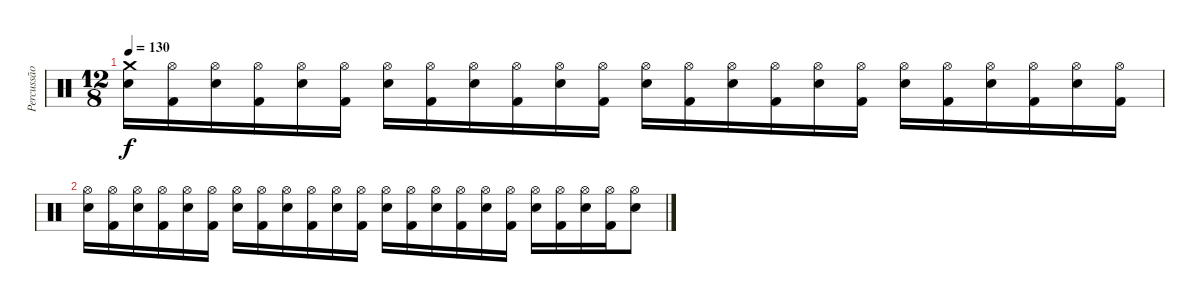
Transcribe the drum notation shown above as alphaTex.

\track ("Percussão" "Percussão") {instrument percussion}
\staff {score}
\articulation defaults
\ts (12 8)
\tempo 130
\clef neutral
\ks c
("Crash medium (hit)" "Electric Snare (hit)").16{dy f} ("Hi-Hat (open)" "Kick (hit) 2").16 ("Hi-Hat (open)" "Electric Snare (hit)").16 ("Hi-Hat (open)" "Kick (hit) 2").16 ("Hi-Hat (open)" "Electric Snare (hit)").16 ("Hi-Hat (open)" "Kick (hit) 2").16 ("Hi-Hat (open)" "Electric Snare (hit)").16 ("Hi-Hat (open)" "Kick (hit) 2").16 ("Hi-Hat (open)" "Electric Snare (hit)").16 ("Hi-Hat (open)" "Kick (hit) 2").16 ("Hi-Hat (open)" "Electric Snare (hit)").16 ("Hi-Hat (open)" "Kick (hit) 2").16 ("Hi-Hat (open)" "Electric Snare (hit)").16 ("Hi-Hat (open)" "Kick (hit) 2").16 ("Hi-Hat (open)" "Electric Snare (hit)").16 ("Hi-Hat (open)" "Kick (hit) 2").16 ("Hi-Hat (open)" "Electric Snare (hit)").16 ("Hi-Hat (open)" "Kick (hit) 2").16 ("Hi-Hat (open)" "Electric Snare (hit)").16 ("Hi-Hat (open)" "Kick (hit) 2").16 ("Hi-Hat (open)" "Electric Snare (hit)").16 ("Hi-Hat (open)" "Kick (hit) 2").16 ("Hi-Hat (open)" "Electric Snare (hit)").16 ("Hi-Hat (open)" "Kick (hit) 2").16 |
("Hi-Hat (open)" "Electric Snare (hit)").16 ("Hi-Hat (open)" "Kick (hit) 2").16 ("Hi-Hat (open)" "Electric Snare (hit)").16 ("Hi-Hat (open)" "Kick (hit) 2").16 ("Hi-Hat (open)" "Electric Snare (hit)").16 ("Hi-Hat (open)" "Kick (hit) 2").16 ("Hi-Hat (open)" "Electric Snare (hit)").16 ("Hi-Hat (open)" "Kick (hit) 2").16 ("Hi-Hat (open)" "Electric Snare (hit)").16 ("Hi-Hat (open)" "Kick (hit) 2").16 ("Hi-Hat (open)" "Electric Snare (hit)").16 ("Hi-Hat (open)" "Kick (hit) 2").16 ("Hi-Hat (open)" "Electric Snare (hit)").16 ("Hi-Hat (open)" "Kick (hit) 2").16 ("Hi-Hat (open)" "Electric Snare (hit)").16 ("Hi-Hat (open)" "Kick (hit) 2").16 ("Hi-Hat (open)" "Electric Snare (hit)").16 ("Hi-Hat (open)" "Kick (hit) 2").16 ("Hi-Hat (open)" "Electric Snare (hit)").16 ("Hi-Hat (open)" "Kick (hit) 2").16 ("Hi-Hat (open)" "Electric Snare (hit)").16 ("Hi-Hat (open)" "Kick (hit) 2").16 ("Hi-Hat (open)" "Electric Snare (hit)").8
